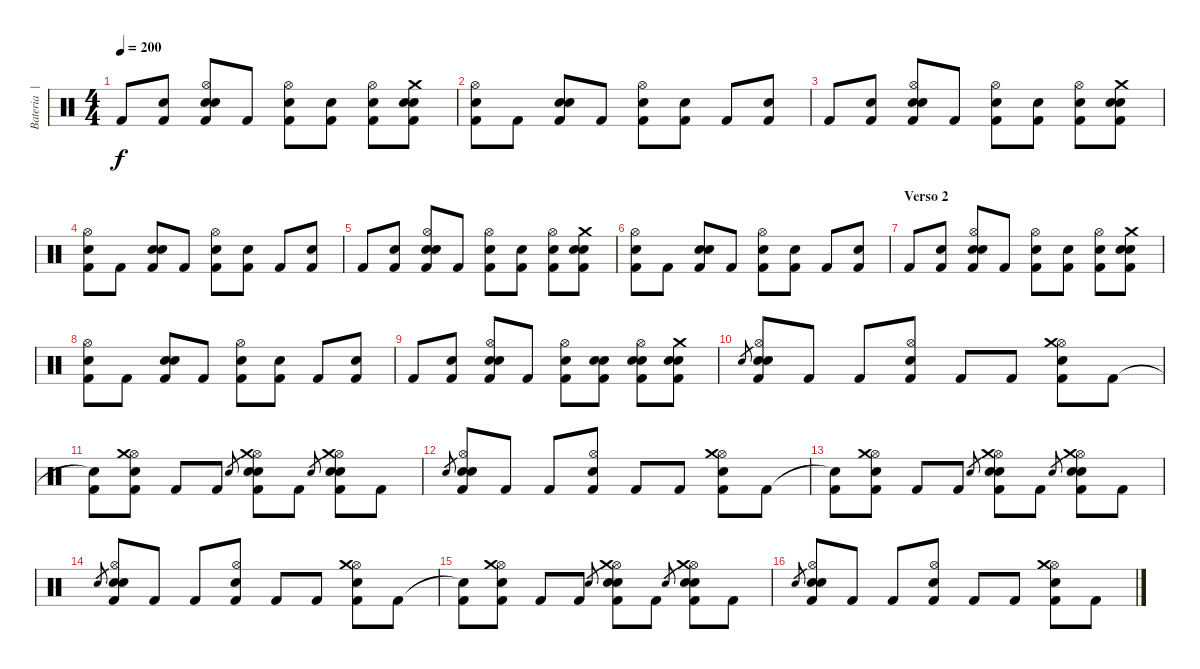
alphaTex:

\track ("Bateria  | Nô" "Bateria  |") {instrument percussion}
\staff {score}
\articulation defaults
\ts (4 4)
\tempo 200
\clef neutral
\ks c "Kick (hit) 2".8{dy f}
("Electric Snare (hit)" "Kick (hit) 2").8 ("Hi-Hat (open)" "Electric Snare (hit)" "Snare (hit) 2" "Kick (hit) 2").8 "Kick (hit) 2".8 ("Hi-Hat (open)" "Electric Snare (hit)" "Kick (hit) 2").8 ("Electric Snare (hit)" "Kick (hit) 2").8 ("Hi-Hat (open)" "Electric Snare (hit)" "Kick (hit) 2").8 ("Crash medium (hit)" "Snare (hit) 2" "Electric Snare (hit)" "Kick (hit) 2").8 |
("Hi-Hat (open)" "Electric Snare (hit)" "Kick (hit) 2").8 "Kick (hit) 2".8 ("Snare (hit) 2" "Electric Snare (hit)" "Kick (hit) 2").8 "Kick (hit) 2".8 ("Hi-Hat (open)" "Electric Snare (hit)" "Kick (hit) 2").8 ("Electric Snare (hit)" "Kick (hit) 2").8 "Kick (hit) 2".8 ("Snare (hit) 2" "Kick (hit) 2").8 |
"Kick (hit) 2".8 ("Electric Snare (hit)" "Kick (hit) 2").8 ("Hi-Hat (open)" "Electric Snare (hit)" "Snare (hit) 2" "Kick (hit) 2").8 "Kick (hit) 2".8 ("Hi-Hat (open)" "Electric Snare (hit)" "Kick (hit) 2").8 ("Electric Snare (hit)" "Kick (hit) 2").8 ("Hi-Hat (open)" "Electric Snare (hit)" "Kick (hit) 2").8 ("Crash medium (hit)" "Snare (hit) 2" "Electric Snare (hit)" "Kick (hit) 2").8 |
("Hi-Hat (open)" "Electric Snare (hit)" "Kick (hit) 2").8 "Kick (hit) 2".8 ("Snare (hit) 2" "Electric Snare (hit)" "Kick (hit) 2").8 "Kick (hit) 2".8 ("Hi-Hat (open)" "Electric Snare (hit)" "Kick (hit) 2").8 ("Electric Snare (hit)" "Kick (hit) 2").8 "Kick (hit) 2".8 ("Snare (hit) 2" "Kick (hit) 2").8 |
"Kick (hit) 2".8 ("Electric Snare (hit)" "Kick (hit) 2").8 ("Hi-Hat (open)" "Electric Snare (hit)" "Snare (hit) 2" "Kick (hit) 2").8 "Kick (hit) 2".8 ("Hi-Hat (open)" "Electric Snare (hit)" "Kick (hit) 2").8 ("Electric Snare (hit)" "Kick (hit) 2").8 ("Hi-Hat (open)" "Electric Snare (hit)" "Kick (hit) 2").8 ("Crash medium (hit)" "Snare (hit) 2" "Electric Snare (hit)" "Kick (hit) 2").8 |
("Hi-Hat (open)" "Electric Snare (hit)" "Kick (hit) 2").8 "Kick (hit) 2".8 ("Snare (hit) 2" "Electric Snare (hit)" "Kick (hit) 2").8 "Kick (hit) 2".8 ("Hi-Hat (open)" "Electric Snare (hit)" "Kick (hit) 2").8 ("Electric Snare (hit)" "Kick (hit) 2").8 "Kick (hit) 2".8 ("Snare (hit) 2" "Kick (hit) 2").8 |
\section ("" "Verso 2")
"Kick (hit) 2".8 ("Electric Snare (hit)" "Kick (hit) 2").8 ("Hi-Hat (open)" "Electric Snare (hit)" "Snare (hit) 2" "Kick (hit) 2").8 "Kick (hit) 2".8 ("Hi-Hat (open)" "Electric Snare (hit)" "Kick (hit) 2").8 ("Electric Snare (hit)" "Kick (hit) 2").8 ("Hi-Hat (open)" "Electric Snare (hit)" "Kick (hit) 2").8 ("Crash medium (hit)" "Snare (hit) 2" "Electric Snare (hit)" "Kick (hit) 2").8 |
("Hi-Hat (open)" "Electric Snare (hit)" "Kick (hit) 2").8 "Kick (hit) 2".8 ("Snare (hit) 2" "Electric Snare (hit)" "Kick (hit) 2").8 "Kick (hit) 2".8 ("Hi-Hat (open)" "Electric Snare (hit)" "Kick (hit) 2").8 ("Electric Snare (hit)" "Kick (hit) 2").8 "Kick (hit) 2".8 ("Snare (hit) 2" "Kick (hit) 2").8 |
"Kick (hit) 2".8 ("Electric Snare (hit)" "Kick (hit) 2").8 ("Hi-Hat (open)" "Electric Snare (hit)" "Snare (hit) 2" "Kick (hit) 2").8 "Kick (hit) 2".8 ("Hi-Hat (open)" "Electric Snare (hit)" "Kick (hit) 2").8 ("Snare (hit) 2" "Electric Snare (hit)" "Kick (hit) 2").8 ("Hi-Hat (open)" "Snare (hit) 2" "Electric Snare (hit)" "Kick (hit) 2").8 ("Crash medium (hit)" "Snare (hit) 2" "Electric Snare (hit)" "Kick (hit) 2").8 |
"Electric Snare (hit)".8{gr} ("Hi-Hat (open)" "Snare (hit) 2" "Electric Snare (hit)" "Kick (hit) 2").8 "Kick (hit) 2".8 "Kick (hit) 2".8 ("Hi-Hat (open)" "Snare (hit) 2" "Kick (hit) 2").8 "Kick (hit) 2".8 "Kick (hit) 2".8 ("Hi-Hat (open)" "Crash medium (hit)" "Snare (hit) 2" "Kick (hit) 2").8 "Kick (hit) 2".8 |
("Snare (hit)"{t} "Kick (hit) 2").8 ("Hi-Hat (open)" "Crash medium (hit)" "Snare (hit) 2" "Kick (hit) 2").8 "Kick (hit) 2".8 "Kick (hit) 2".8 "Electric Snare (hit)".8{gr} ("Hi-Hat (open)" "Crash medium (hit)" "Snare (hit) 2" "Electric Snare (hit)" "Kick (hit) 2").8 "Kick (hit) 2".8 "Electric Snare (hit)".8{gr} ("Hi-Hat (open)" "Crash medium (hit)" "Snare (hit) 2" "Electric Snare (hit)" "Kick (hit) 2").8 "Kick (hit) 2".8 |
"Electric Snare (hit)".8{gr} ("Hi-Hat (open)" "Snare (hit) 2" "Electric Snare (hit)" "Kick (hit) 2").8 "Kick (hit) 2".8 "Kick (hit) 2".8 ("Hi-Hat (open)" "Snare (hit) 2" "Kick (hit) 2").8 "Kick (hit) 2".8 "Kick (hit) 2".8 ("Hi-Hat (open)" "Crash medium (hit)" "Snare (hit) 2" "Kick (hit) 2").8 "Kick (hit) 2".8 |
("Snare (hit)"{t} "Kick (hit) 2").8 ("Hi-Hat (open)" "Crash medium (hit)" "Snare (hit) 2" "Kick (hit) 2").8 "Kick (hit) 2".8 "Kick (hit) 2".8 "Electric Snare (hit)".8{gr} ("Hi-Hat (open)" "Crash medium (hit)" "Snare (hit) 2" "Electric Snare (hit)" "Kick (hit) 2").8 "Kick (hit) 2".8 "Electric Snare (hit)".8{gr} ("Hi-Hat (open)" "Crash medium (hit)" "Snare (hit) 2" "Electric Snare (hit)" "Kick (hit) 2").8 "Kick (hit) 2".8 |
"Electric Snare (hit)".8{gr} ("Hi-Hat (open)" "Snare (hit) 2" "Electric Snare (hit)" "Kick (hit) 2").8 "Kick (hit) 2".8 "Kick (hit) 2".8 ("Hi-Hat (open)" "Snare (hit) 2" "Kick (hit) 2").8 "Kick (hit) 2".8 "Kick (hit) 2".8 ("Hi-Hat (open)" "Crash medium (hit)" "Snare (hit) 2" "Kick (hit) 2").8 "Kick (hit) 2".8 |
("Snare (hit)"{t} "Kick (hit) 2").8 ("Hi-Hat (open)" "Crash medium (hit)" "Snare (hit) 2" "Kick (hit) 2").8 "Kick (hit) 2".8 "Kick (hit) 2".8 "Electric Snare (hit)".8{gr} ("Hi-Hat (open)" "Crash medium (hit)" "Snare (hit) 2" "Electric Snare (hit)" "Kick (hit) 2").8 "Kick (hit) 2".8 "Electric Snare (hit)".8{gr} ("Hi-Hat (open)" "Crash medium (hit)" "Snare (hit) 2" "Electric Snare (hit)" "Kick (hit) 2").8 "Kick (hit) 2".8 |
"Electric Snare (hit)".8{gr} ("Hi-Hat (open)" "Snare (hit) 2" "Electric Snare (hit)" "Kick (hit) 2").8 "Kick (hit) 2".8 "Kick (hit) 2".8 ("Hi-Hat (open)" "Snare (hit) 2" "Kick (hit) 2").8 "Kick (hit) 2".8 "Kick (hit) 2".8 ("Hi-Hat (open)" "Crash medium (hit)" "Snare (hit) 2" "Kick (hit) 2").8 "Kick (hit) 2".8
